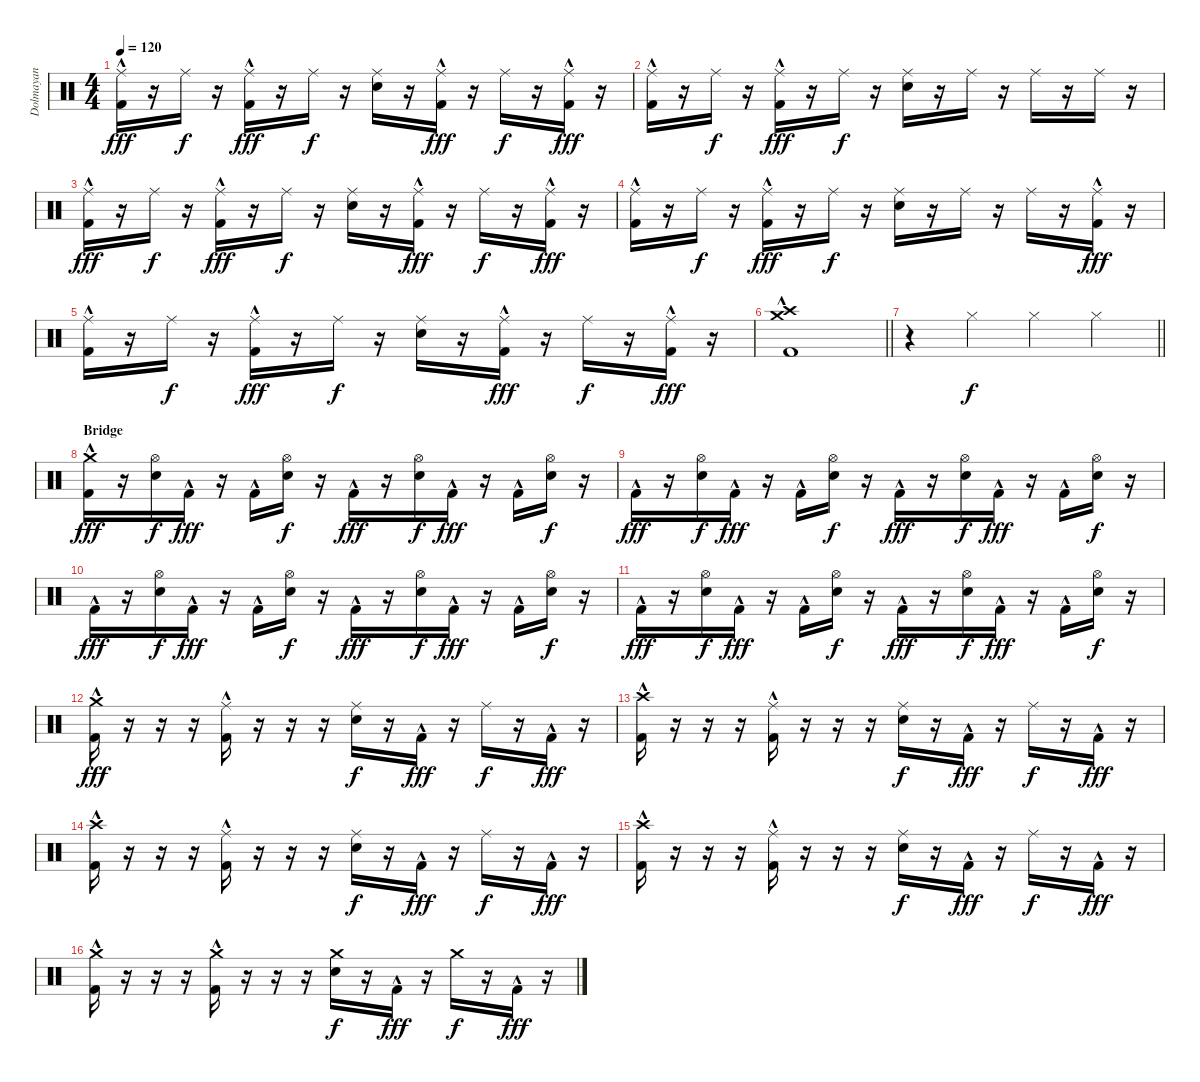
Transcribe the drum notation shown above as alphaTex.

\track ("Dolmayan" "Dolmayan") {instrument percussion}
\staff {score}
\articulation defaults
\ts (4 4)
\tempo 120
\clef neutral
\ks c
("Ride (middle)" "Kick (hit) 2"{hac}).16{dy fff} r.16 "Ride (middle)".16{dy f} r.16 ("Ride (middle)" "Kick (hit) 2"{hac}).16{dy fff} r.16 "Ride (middle)".16{dy f} r.16 ("Ride (middle)" "Snare (hit) 2").16 r.16 ("Ride (middle)" "Kick (hit) 2"{hac}).16{dy fff} r.16 "Ride (middle)".16{dy f} r.16 ("Ride (middle)" "Kick (hit) 2"{hac}).16{dy fff} r.16 |
("Ride (middle)" "Kick (hit) 2"{hac}).16 r.16 "Ride (middle)".16{dy f} r.16 ("Ride (middle)" "Kick (hit) 2"{hac}).16{dy fff} r.16 "Ride (middle)".16{dy f} r.16 ("Ride (middle)" "Snare (hit) 2").16 r.16 "Ride (middle)".16 r.16 "Ride (middle)".16 r.16 "Ride (middle)".16 r.16 |
("Ride (middle)" "Kick (hit) 2"{hac}).16{dy fff} r.16 "Ride (middle)".16{dy f} r.16 ("Ride (middle)" "Kick (hit) 2"{hac}).16{dy fff} r.16 "Ride (middle)".16{dy f} r.16 ("Ride (middle)" "Snare (hit) 2").16 r.16 ("Ride (middle)" "Kick (hit) 2"{hac}).16{dy fff} r.16 "Ride (middle)".16{dy f} r.16 ("Ride (middle)" "Kick (hit) 2"{hac}).16{dy fff} r.16 |
("Ride (middle)" "Kick (hit) 2"{hac}).16 r.16 "Ride (middle)".16{dy f} r.16 ("Ride (middle)" "Kick (hit) 2"{hac}).16{dy fff} r.16 "Ride (middle)".16{dy f} r.16 ("Ride (middle)" "Snare (hit) 2").16 r.16 "Ride (middle)".16 r.16 "Ride (middle)".16 r.16 ("Ride (middle)" "Kick (hit) 2"{hac}).16{dy fff} r.16 |
("Ride (middle)" "Kick (hit) 2"{hac}).16 r.16 "Ride (middle)".16{dy f} r.16 ("Ride (middle)" "Kick (hit) 2"{hac}).16{dy fff} r.16 "Ride (middle)".16{dy f} r.16 ("Ride (middle)" "Snare (hit) 2").16 r.16 ("Ride (middle)" "Kick (hit) 2"{hac}).16{dy fff} r.16 "Ride (middle)".16{dy f} r.16 ("Ride (middle)" "Kick (hit) 2"{hac}).16{dy fff} r.16 |
\barLineRight lightlight
("Crash medium (hit)" "Crash high (hit)" "Kick (hit) 2"{hac}).1 |
\barLineRight lightlight
r.4 "Hi-Hat (closed)".4{dy f} "Hi-Hat (closed)".4 "Hi-Hat (closed)".4 |
\section ("" "Bridge")
("Crash medium (hit)" "Kick (hit) 2"{hac}).16{dy fff} r.16 ("Hi-Hat (open)" "Snare (hit) 2").16{dy f} "Kick (hit) 2"{hac}.16{dy fff} r.16 "Kick (hit) 2"{hac}.16 ("Hi-Hat (open)" "Snare (hit) 2").16{dy f} r.16 "Kick (hit) 2"{hac}.16{dy fff} r.16 ("Hi-Hat (open)" "Snare (hit) 2").16{dy f} "Kick (hit) 2"{hac}.16{dy fff} r.16 "Kick (hit) 2"{hac}.16 ("Hi-Hat (open)" "Snare (hit) 2").16{dy f} r.16 |
"Kick (hit) 2"{hac}.16{dy fff} r.16 ("Hi-Hat (open)" "Snare (hit) 2").16{dy f} "Kick (hit) 2"{hac}.16{dy fff} r.16 "Kick (hit) 2"{hac}.16 ("Hi-Hat (open)" "Snare (hit) 2").16{dy f} r.16 "Kick (hit) 2"{hac}.16{dy fff} r.16 ("Hi-Hat (open)" "Snare (hit) 2").16{dy f} "Kick (hit) 2"{hac}.16{dy fff} r.16 "Kick (hit) 2"{hac}.16 ("Hi-Hat (open)" "Snare (hit) 2").16{dy f} r.16 |
"Kick (hit) 2"{hac}.16{dy fff} r.16 ("Hi-Hat (open)" "Snare (hit) 2").16{dy f} "Kick (hit) 2"{hac}.16{dy fff} r.16 "Kick (hit) 2"{hac}.16 ("Hi-Hat (open)" "Snare (hit) 2").16{dy f} r.16 "Kick (hit) 2"{hac}.16{dy fff} r.16 ("Hi-Hat (open)" "Snare (hit) 2").16{dy f} "Kick (hit) 2"{hac}.16{dy fff} r.16 "Kick (hit) 2"{hac}.16 ("Hi-Hat (open)" "Snare (hit) 2").16{dy f} r.16 |
"Kick (hit) 2"{hac}.16{dy fff} r.16 ("Hi-Hat (open)" "Snare (hit) 2").16{dy f} "Kick (hit) 2"{hac}.16{dy fff} r.16 "Kick (hit) 2"{hac}.16 ("Hi-Hat (open)" "Snare (hit) 2").16{dy f} r.16 "Kick (hit) 2"{hac}.16{dy fff} r.16 ("Hi-Hat (open)" "Snare (hit) 2").16{dy f} "Kick (hit) 2"{hac}.16{dy fff} r.16 "Kick (hit) 2"{hac}.16 ("Hi-Hat (open)" "Snare (hit) 2").16{dy f} r.16 |
("Crash medium (hit)" "Kick (hit) 2"{hac}).16{dy fff} r.16 r.16 r.16 ("Ride (middle)" "Kick (hit) 2"{hac}).16 r.16 r.16 r.16 ("Ride (middle)" "Snare (hit) 2").16{dy f} r.16 "Kick (hit) 2"{hac}.16{dy fff} r.16 "Ride (middle)".16{dy f} r.16 "Kick (hit) 2"{hac}.16{dy fff} r.16 |
("Crash high (hit)" "Kick (hit) 2"{hac}).16 r.16 r.16 r.16 ("Ride (middle)" "Kick (hit) 2"{hac}).16 r.16 r.16 r.16 ("Ride (middle)" "Snare (hit) 2").16{dy f} r.16 "Kick (hit) 2"{hac}.16{dy fff} r.16 "Ride (middle)".16{dy f} r.16 "Kick (hit) 2"{hac}.16{dy fff} r.16 |
("Crash high (hit)" "Kick (hit) 2"{hac}).16 r.16 r.16 r.16 ("Ride (middle)" "Kick (hit) 2"{hac}).16 r.16 r.16 r.16 ("Ride (middle)" "Snare (hit) 2").16{dy f} r.16 "Kick (hit) 2"{hac}.16{dy fff} r.16 "Ride (middle)".16{dy f} r.16 "Kick (hit) 2"{hac}.16{dy fff} r.16 |
("Crash high (hit)" "Kick (hit) 2"{hac}).16 r.16 r.16 r.16 ("Ride (middle)" "Kick (hit) 2"{hac}).16 r.16 r.16 r.16 ("Ride (middle)" "Snare (hit) 2").16{dy f} r.16 "Kick (hit) 2"{hac}.16{dy fff} r.16 "Ride (middle)".16{dy f} r.16 "Kick (hit) 2"{hac}.16{dy fff} r.16 |
("Crash medium (hit)" "Kick (hit) 2"{hac}).16 r.16 r.16 r.16 ("Crash medium (hit)" "Kick (hit) 2"{hac}).16 r.16 r.16 r.16 ("Crash medium (hit)" "Snare (hit) 2").16{dy f} r.16 "Kick (hit) 2"{hac}.16{dy fff} r.16 "Crash medium (hit)".16{dy f} r.16 "Kick (hit) 2"{hac}.16{dy fff} r.16
